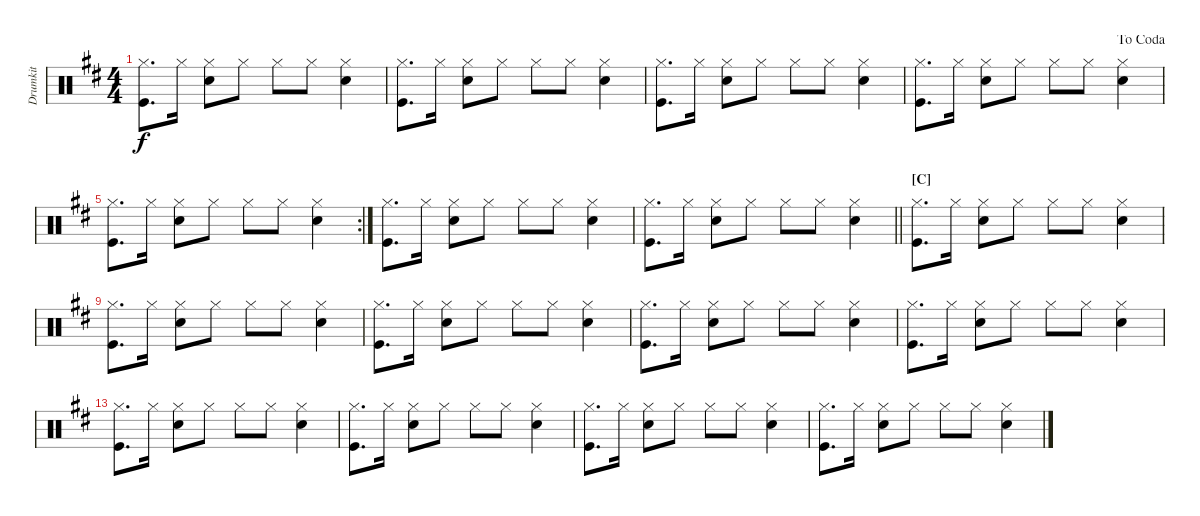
\bracketExtendMode groupsimilarinstruments
\multiTrackTrackNamePolicy hidden
\firstSystemTrackNameMode fullname
\otherSystemsTrackNameMode fullname
\otherSystemsTrackNameOrientation horizontal
\defaultBarNumberDisplay FirstOfSystem
\track ("Drumkit" "Drums") {instrument percussion}
\staff {score}
\articulation defaults
\ts (4 4)
\tempo (90 hide)
\clef neutral
\ks d
("Hi-Hat (closed)" "Kick (hit)").8{d dy f} "Hi-Hat (closed)".16 ("Hi-Hat (closed)" "Snare (hit) 2").8 "Hi-Hat (closed)".8 "Hi-Hat (closed)".8 "Hi-Hat (closed)".8 ("Hi-Hat (closed)" "Snare (hit) 2").4 |
("Hi-Hat (closed)" "Kick (hit)").8{d} "Hi-Hat (closed)".16 ("Hi-Hat (closed)" "Snare (hit) 2").8 "Hi-Hat (closed)".8 "Hi-Hat (closed)".8 "Hi-Hat (closed)".8 ("Hi-Hat (closed)" "Snare (hit) 2").4 |
("Hi-Hat (closed)" "Kick (hit)").8{d} "Hi-Hat (closed)".16 ("Hi-Hat (closed)" "Snare (hit) 2").8 "Hi-Hat (closed)".8 "Hi-Hat (closed)".8 "Hi-Hat (closed)".8 ("Hi-Hat (closed)" "Snare (hit) 2").4 |
\jump dacoda
("Hi-Hat (closed)" "Kick (hit)").8{d} "Hi-Hat (closed)".16 ("Hi-Hat (closed)" "Snare (hit) 2").8 "Hi-Hat (closed)".8 "Hi-Hat (closed)".8 "Hi-Hat (closed)".8 ("Hi-Hat (closed)" "Snare (hit) 2").4 |
\rc 2
("Hi-Hat (closed)" "Kick (hit)").8{d} "Hi-Hat (closed)".16 ("Hi-Hat (closed)" "Snare (hit) 2").8 "Hi-Hat (closed)".8 "Hi-Hat (closed)".8 "Hi-Hat (closed)".8 ("Hi-Hat (closed)" "Snare (hit) 2").4 |
("Hi-Hat (closed)" "Kick (hit)").8{d} "Hi-Hat (closed)".16 ("Hi-Hat (closed)" "Snare (hit) 2").8 "Hi-Hat (closed)".8 "Hi-Hat (closed)".8 "Hi-Hat (closed)".8 ("Hi-Hat (closed)" "Snare (hit) 2").4 |
\barLineRight lightlight
("Hi-Hat (closed)" "Kick (hit)").8{d} "Hi-Hat (closed)".16 ("Hi-Hat (closed)" "Snare (hit) 2").8 "Hi-Hat (closed)".8 "Hi-Hat (closed)".8 "Hi-Hat (closed)".8 ("Hi-Hat (closed)" "Snare (hit) 2").4 |
\section ("C" "")
("Hi-Hat (closed)" "Kick (hit)").8{d} "Hi-Hat (closed)".16 ("Hi-Hat (closed)" "Snare (hit) 2").8 "Hi-Hat (closed)".8 "Hi-Hat (closed)".8 "Hi-Hat (closed)".8 ("Hi-Hat (closed)" "Snare (hit) 2").4 |
("Hi-Hat (closed)" "Kick (hit)").8{d} "Hi-Hat (closed)".16 ("Hi-Hat (closed)" "Snare (hit) 2").8 "Hi-Hat (closed)".8 "Hi-Hat (closed)".8 "Hi-Hat (closed)".8 ("Hi-Hat (closed)" "Snare (hit) 2").4 |
("Hi-Hat (closed)" "Kick (hit)").8{d} "Hi-Hat (closed)".16 ("Hi-Hat (closed)" "Snare (hit) 2").8 "Hi-Hat (closed)".8 "Hi-Hat (closed)".8 "Hi-Hat (closed)".8 ("Hi-Hat (closed)" "Snare (hit) 2").4 |
("Hi-Hat (closed)" "Kick (hit)").8{d} "Hi-Hat (closed)".16 ("Hi-Hat (closed)" "Snare (hit) 2").8 "Hi-Hat (closed)".8 "Hi-Hat (closed)".8 "Hi-Hat (closed)".8 ("Hi-Hat (closed)" "Snare (hit) 2").4 |
("Hi-Hat (closed)" "Kick (hit)").8{d} "Hi-Hat (closed)".16 ("Hi-Hat (closed)" "Snare (hit) 2").8 "Hi-Hat (closed)".8 "Hi-Hat (closed)".8 "Hi-Hat (closed)".8 ("Hi-Hat (closed)" "Snare (hit) 2").4 |
("Hi-Hat (closed)" "Kick (hit)").8{d} "Hi-Hat (closed)".16 ("Hi-Hat (closed)" "Snare (hit) 2").8 "Hi-Hat (closed)".8 "Hi-Hat (closed)".8 "Hi-Hat (closed)".8 ("Hi-Hat (closed)" "Snare (hit) 2").4 |
("Hi-Hat (closed)" "Kick (hit)").8{d} "Hi-Hat (closed)".16 ("Hi-Hat (closed)" "Snare (hit) 2").8 "Hi-Hat (closed)".8 "Hi-Hat (closed)".8 "Hi-Hat (closed)".8 ("Hi-Hat (closed)" "Snare (hit) 2").4 |
("Hi-Hat (closed)" "Kick (hit)").8{d} "Hi-Hat (closed)".16 ("Hi-Hat (closed)" "Snare (hit) 2").8 "Hi-Hat (closed)".8 "Hi-Hat (closed)".8 "Hi-Hat (closed)".8 ("Hi-Hat (closed)" "Snare (hit) 2").4 |
("Hi-Hat (closed)" "Kick (hit)").8{d} "Hi-Hat (closed)".16 ("Hi-Hat (closed)" "Snare (hit) 2").8 "Hi-Hat (closed)".8 "Hi-Hat (closed)".8 "Hi-Hat (closed)".8 ("Hi-Hat (closed)" "Snare (hit) 2").4
